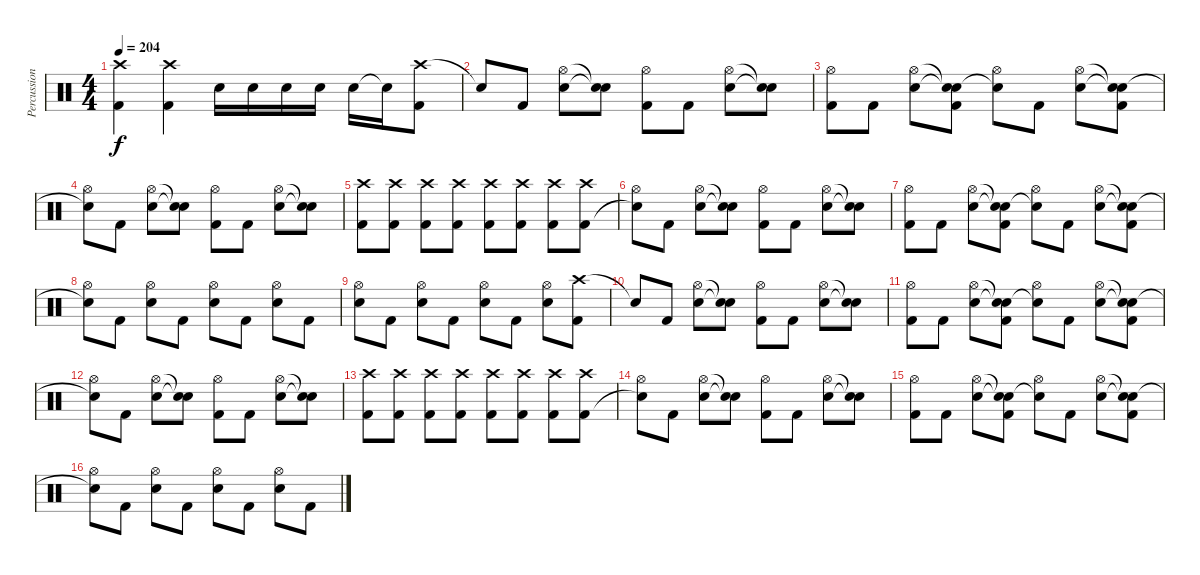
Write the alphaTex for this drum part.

\track ("Percussion" "Percussion") {instrument percussion}
\staff {score}
\articulation defaults
\ts (4 4)
\tempo 204
\clef neutral
\ks c
("Crash high (hit)" "Kick (hit) 2").4{dy f} ("Crash high (hit)" "Kick (hit) 2").4 "Electric Snare (hit)".16 "Electric Snare (hit)".16 "Electric Snare (hit)".16 "Electric Snare (hit)".16 "Electric Snare (hit)".16 "Snare (hit)"{t}.16 ("Crash high (hit)" "Kick (hit) 2").8 |
"Snare (hit)"{t}.8 "Kick (hit) 2".8 ("Hi-Hat (open)" "Electric Snare (hit)").8 ("Snare (hit)"{t} "Snare (hit)"{t}).8 ("Hi-Hat (open)" "Kick (hit) 2").8 "Kick (hit) 2".8 ("Hi-Hat (open)" "Electric Snare (hit)").8 ("Snare (hit)"{t} "Snare (hit)"{t}).8 |
("Hi-Hat (open)" "Kick (hit) 2").8 "Kick (hit) 2".8 ("Hi-Hat (open)" "Electric Snare (hit)").8 ("Snare (hit)"{t} "Snare (hit)"{t} "Kick (hit) 2").8 ("Hi-Hat (open)" "Snare (hit)"{t}).8 "Kick (hit) 2".8 ("Hi-Hat (open)" "Electric Snare (hit)").8 ("Snare (hit)"{t} "Snare (hit)"{t} "Kick (hit) 2").8 |
("Hi-Hat (open)" "Snare (hit)"{t}).8 "Kick (hit) 2".8 ("Hi-Hat (open)" "Electric Snare (hit)").8 ("Snare (hit)"{t} "Snare (hit)"{t}).8 ("Hi-Hat (open)" "Kick (hit) 2").8 "Kick (hit) 2".8 ("Hi-Hat (open)" "Electric Snare (hit)").8 ("Snare (hit)"{t} "Snare (hit)"{t}).8 |
("Crash high (hit)" "Kick (hit) 2").8 ("Crash high (hit)" "Kick (hit) 2").8 ("Crash high (hit)" "Kick (hit) 2").8 ("Crash high (hit)" "Kick (hit) 2").8 ("Crash high (hit)" "Kick (hit) 2").8 ("Crash high (hit)" "Kick (hit) 2").8 ("Crash high (hit)" "Kick (hit) 2").8 ("Crash high (hit)" "Kick (hit) 2").8 |
("Hi-Hat (open)" "Snare (hit)"{t}).8 "Kick (hit) 2".8 ("Hi-Hat (open)" "Electric Snare (hit)").8 ("Snare (hit)"{t} "Snare (hit)"{t}).8 ("Hi-Hat (open)" "Kick (hit) 2").8 "Kick (hit) 2".8 ("Hi-Hat (open)" "Electric Snare (hit)").8 ("Snare (hit)"{t} "Snare (hit)"{t}).8 |
("Hi-Hat (open)" "Kick (hit) 2").8 "Kick (hit) 2".8 ("Hi-Hat (open)" "Electric Snare (hit)").8 ("Snare (hit)"{t} "Snare (hit)"{t} "Kick (hit) 2").8 ("Hi-Hat (open)" "Snare (hit)"{t}).8 "Kick (hit) 2".8 ("Hi-Hat (open)" "Electric Snare (hit)").8 ("Snare (hit)"{t} "Snare (hit)"{t} "Kick (hit) 2").8 |
("Hi-Hat (open)" "Snare (hit)"{t}).8 "Kick (hit) 2".8 ("Hi-Hat (open)" "Electric Snare (hit)").8 "Kick (hit) 2".8 ("Hi-Hat (open)" "Electric Snare (hit)").8 "Kick (hit) 2".8 ("Hi-Hat (open)" "Electric Snare (hit)").8 "Kick (hit) 2".8 |
("Hi-Hat (open)" "Electric Snare (hit)").8 "Kick (hit) 2".8 ("Hi-Hat (open)" "Electric Snare (hit)").8 "Kick (hit) 2".8 ("Hi-Hat (open)" "Electric Snare (hit)").8 "Kick (hit) 2".8 ("Hi-Hat (open)" "Electric Snare (hit)").8 ("Crash high (hit)" "Kick (hit) 2").8 |
"Snare (hit)"{t}.8 "Kick (hit) 2".8 ("Hi-Hat (open)" "Electric Snare (hit)").8 ("Snare (hit)"{t} "Snare (hit)"{t}).8 ("Hi-Hat (open)" "Kick (hit) 2").8 "Kick (hit) 2".8 ("Hi-Hat (open)" "Electric Snare (hit)").8 ("Snare (hit)"{t} "Snare (hit)"{t}).8 |
("Hi-Hat (open)" "Kick (hit) 2").8 "Kick (hit) 2".8 ("Hi-Hat (open)" "Electric Snare (hit)").8 ("Snare (hit)"{t} "Snare (hit)"{t} "Kick (hit) 2").8 ("Hi-Hat (open)" "Snare (hit)"{t}).8 "Kick (hit) 2".8 ("Hi-Hat (open)" "Electric Snare (hit)").8 ("Snare (hit)"{t} "Snare (hit)"{t} "Kick (hit) 2").8 |
("Hi-Hat (open)" "Snare (hit)"{t}).8 "Kick (hit) 2".8 ("Hi-Hat (open)" "Electric Snare (hit)").8 ("Snare (hit)"{t} "Snare (hit)"{t}).8 ("Hi-Hat (open)" "Kick (hit) 2").8 "Kick (hit) 2".8 ("Hi-Hat (open)" "Electric Snare (hit)").8 ("Snare (hit)"{t} "Snare (hit)"{t}).8 |
("Crash high (hit)" "Kick (hit) 2").8 ("Crash high (hit)" "Kick (hit) 2").8 ("Crash high (hit)" "Kick (hit) 2").8 ("Crash high (hit)" "Kick (hit) 2").8 ("Crash high (hit)" "Kick (hit) 2").8 ("Crash high (hit)" "Kick (hit) 2").8 ("Crash high (hit)" "Kick (hit) 2").8 ("Crash high (hit)" "Kick (hit) 2").8 |
("Hi-Hat (open)" "Snare (hit)"{t}).8 "Kick (hit) 2".8 ("Hi-Hat (open)" "Electric Snare (hit)").8 ("Snare (hit)"{t} "Snare (hit)"{t}).8 ("Hi-Hat (open)" "Kick (hit) 2").8 "Kick (hit) 2".8 ("Hi-Hat (open)" "Electric Snare (hit)").8 ("Snare (hit)"{t} "Snare (hit)"{t}).8 |
("Hi-Hat (open)" "Kick (hit) 2").8 "Kick (hit) 2".8 ("Hi-Hat (open)" "Electric Snare (hit)").8 ("Snare (hit)"{t} "Snare (hit)"{t} "Kick (hit) 2").8 ("Hi-Hat (open)" "Snare (hit)"{t}).8 "Kick (hit) 2".8 ("Hi-Hat (open)" "Electric Snare (hit)").8 ("Snare (hit)"{t} "Snare (hit)"{t} "Kick (hit) 2").8 |
("Hi-Hat (open)" "Snare (hit)"{t}).8 "Kick (hit) 2".8 ("Hi-Hat (open)" "Electric Snare (hit)").8 "Kick (hit) 2".8 ("Hi-Hat (open)" "Electric Snare (hit)").8 "Kick (hit) 2".8 ("Hi-Hat (open)" "Electric Snare (hit)").8 "Kick (hit) 2".8
